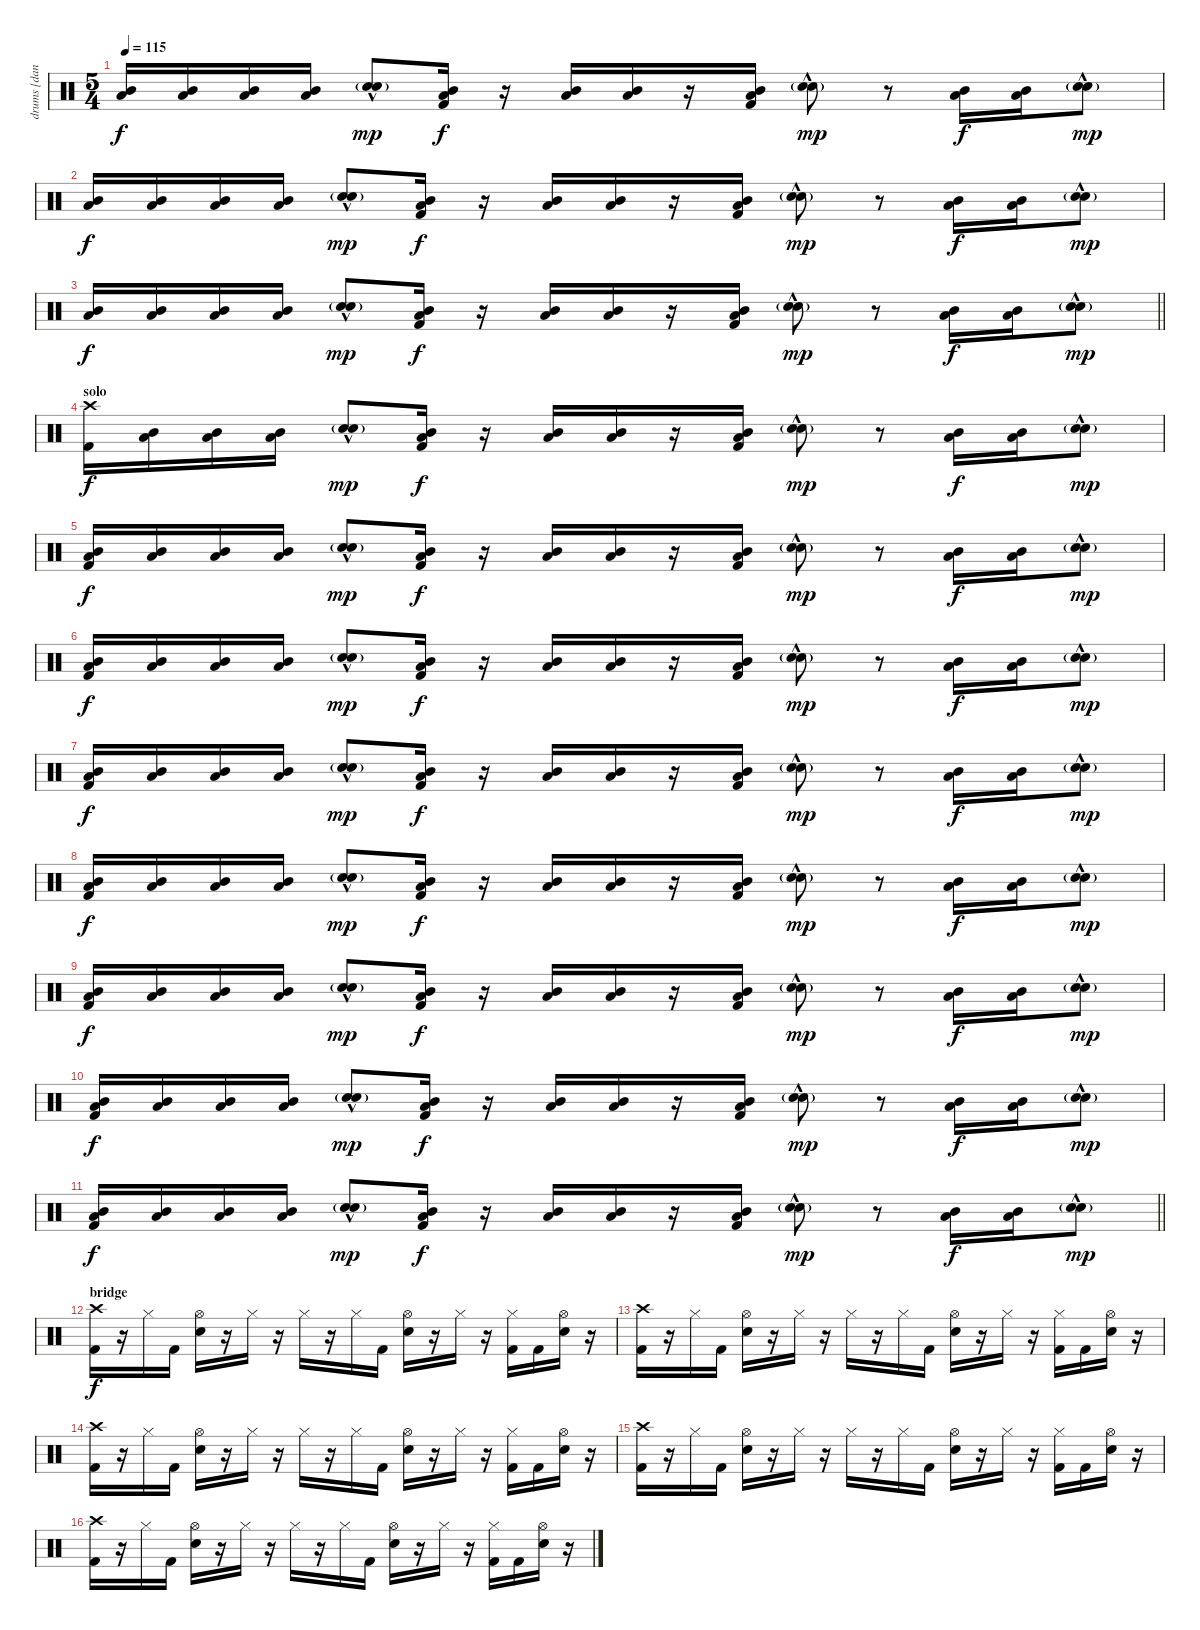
\track ("drums [danny carey]" "drums [dan") {instrument percussion}
\staff {score}
\articulation defaults
\ts (5 4)
\tempo 115
\clef neutral
\ks c
("Mid Tom (hit)" "Low Tom (hit)").16{dy f} ("Mid Tom (hit)" "Low Tom (hit)").16 ("Mid Tom (hit)" "Low Tom (hit)").16 ("Mid Tom (hit)" "Low Tom (hit)").16 ("Electric Snare (hit)"{hac} "Snare (hit) 2"{g}).8{dy mp} ("Mid Tom (hit)" "Low Tom (hit)" "Kick (hit) 2").16{dy f} r.16 ("Mid Tom (hit)" "Low Tom (hit)").16 ("Mid Tom (hit)" "Low Tom (hit)").16 r.16 ("Mid Tom (hit)" "Low Tom (hit)" "Kick (hit) 2").16 ("Electric Snare (hit)"{hac} "Snare (hit) 2"{g}).8{dy mp} r.8 ("Mid Tom (hit)" "Low Tom (hit)").16{dy f} ("Mid Tom (hit)" "Low Tom (hit)").16 ("Electric Snare (hit)"{hac} "Snare (hit) 2"{g}).8{dy mp} |
("Mid Tom (hit)" "Low Tom (hit)").16{dy f} ("Mid Tom (hit)" "Low Tom (hit)").16 ("Mid Tom (hit)" "Low Tom (hit)").16 ("Mid Tom (hit)" "Low Tom (hit)").16 ("Electric Snare (hit)"{hac} "Snare (hit) 2"{g}).8{dy mp} ("Mid Tom (hit)" "Low Tom (hit)" "Kick (hit) 2").16{dy f} r.16 ("Mid Tom (hit)" "Low Tom (hit)").16 ("Mid Tom (hit)" "Low Tom (hit)").16 r.16 ("Mid Tom (hit)" "Low Tom (hit)" "Kick (hit) 2").16 ("Electric Snare (hit)"{hac} "Snare (hit) 2"{g}).8{dy mp} r.8 ("Mid Tom (hit)" "Low Tom (hit)").16{dy f} ("Mid Tom (hit)" "Low Tom (hit)").16 ("Electric Snare (hit)"{hac} "Snare (hit) 2"{g}).8{dy mp} |
\barLineRight lightlight
("Mid Tom (hit)" "Low Tom (hit)").16{dy f} ("Mid Tom (hit)" "Low Tom (hit)").16 ("Mid Tom (hit)" "Low Tom (hit)").16 ("Mid Tom (hit)" "Low Tom (hit)").16 ("Electric Snare (hit)"{hac} "Snare (hit) 2"{g}).8{dy mp} ("Mid Tom (hit)" "Low Tom (hit)" "Kick (hit) 2").16{dy f} r.16 ("Mid Tom (hit)" "Low Tom (hit)").16 ("Mid Tom (hit)" "Low Tom (hit)").16 r.16 ("Mid Tom (hit)" "Low Tom (hit)" "Kick (hit) 2").16 ("Electric Snare (hit)"{hac} "Snare (hit) 2"{g}).8{dy mp} r.8 ("Mid Tom (hit)" "Low Tom (hit)").16{dy f} ("Mid Tom (hit)" "Low Tom (hit)").16 ("Electric Snare (hit)"{hac} "Snare (hit) 2"{g}).8{dy mp} |
\section ("" "solo")
("Crash high (hit)" "Kick (hit) 2").16{dy f} ("Mid Tom (hit)" "Low Tom (hit)").16 ("Mid Tom (hit)" "Low Tom (hit)").16 ("Mid Tom (hit)" "Low Tom (hit)").16 ("Electric Snare (hit)"{hac} "Snare (hit) 2"{g}).8{dy mp} ("Mid Tom (hit)" "Low Tom (hit)" "Kick (hit) 2").16{dy f} r.16 ("Mid Tom (hit)" "Low Tom (hit)").16 ("Mid Tom (hit)" "Low Tom (hit)").16 r.16 ("Mid Tom (hit)" "Low Tom (hit)" "Kick (hit) 2").16 ("Electric Snare (hit)"{hac} "Snare (hit) 2"{g}).8{dy mp} r.8 ("Mid Tom (hit)" "Low Tom (hit)").16{dy f} ("Mid Tom (hit)" "Low Tom (hit)").16 ("Electric Snare (hit)"{hac} "Snare (hit) 2"{g}).8{dy mp} |
("Mid Tom (hit)" "Low Tom (hit)" "Kick (hit) 2").16{dy f} ("Mid Tom (hit)" "Low Tom (hit)").16 ("Mid Tom (hit)" "Low Tom (hit)").16 ("Mid Tom (hit)" "Low Tom (hit)").16 ("Electric Snare (hit)"{hac} "Snare (hit) 2"{g}).8{dy mp} ("Mid Tom (hit)" "Low Tom (hit)" "Kick (hit) 2").16{dy f} r.16 ("Mid Tom (hit)" "Low Tom (hit)").16 ("Mid Tom (hit)" "Low Tom (hit)").16 r.16 ("Mid Tom (hit)" "Low Tom (hit)" "Kick (hit) 2").16 ("Electric Snare (hit)"{hac} "Snare (hit) 2"{g}).8{dy mp} r.8 ("Mid Tom (hit)" "Low Tom (hit)").16{dy f} ("Mid Tom (hit)" "Low Tom (hit)").16 ("Electric Snare (hit)"{hac} "Snare (hit) 2"{g}).8{dy mp} |
("Mid Tom (hit)" "Low Tom (hit)" "Kick (hit) 2").16{dy f} ("Mid Tom (hit)" "Low Tom (hit)").16 ("Mid Tom (hit)" "Low Tom (hit)").16 ("Mid Tom (hit)" "Low Tom (hit)").16 ("Electric Snare (hit)"{hac} "Snare (hit) 2"{g}).8{dy mp} ("Mid Tom (hit)" "Low Tom (hit)" "Kick (hit) 2").16{dy f} r.16 ("Mid Tom (hit)" "Low Tom (hit)").16 ("Mid Tom (hit)" "Low Tom (hit)").16 r.16 ("Mid Tom (hit)" "Low Tom (hit)" "Kick (hit) 2").16 ("Electric Snare (hit)"{hac} "Snare (hit) 2"{g}).8{dy mp} r.8 ("Mid Tom (hit)" "Low Tom (hit)").16{dy f} ("Mid Tom (hit)" "Low Tom (hit)").16 ("Electric Snare (hit)"{hac} "Snare (hit) 2"{g}).8{dy mp} |
("Mid Tom (hit)" "Low Tom (hit)" "Kick (hit) 2").16{dy f} ("Mid Tom (hit)" "Low Tom (hit)").16 ("Mid Tom (hit)" "Low Tom (hit)").16 ("Mid Tom (hit)" "Low Tom (hit)").16 ("Electric Snare (hit)"{hac} "Snare (hit) 2"{g}).8{dy mp} ("Mid Tom (hit)" "Low Tom (hit)" "Kick (hit) 2").16{dy f} r.16 ("Mid Tom (hit)" "Low Tom (hit)").16 ("Mid Tom (hit)" "Low Tom (hit)").16 r.16 ("Mid Tom (hit)" "Low Tom (hit)" "Kick (hit) 2").16 ("Electric Snare (hit)"{hac} "Snare (hit) 2"{g}).8{dy mp} r.8 ("Mid Tom (hit)" "Low Tom (hit)").16{dy f} ("Mid Tom (hit)" "Low Tom (hit)").16 ("Electric Snare (hit)"{hac} "Snare (hit) 2"{g}).8{dy mp} |
("Mid Tom (hit)" "Low Tom (hit)" "Kick (hit) 2").16{dy f} ("Mid Tom (hit)" "Low Tom (hit)").16 ("Mid Tom (hit)" "Low Tom (hit)").16 ("Mid Tom (hit)" "Low Tom (hit)").16 ("Electric Snare (hit)"{hac} "Snare (hit) 2"{g}).8{dy mp} ("Mid Tom (hit)" "Low Tom (hit)" "Kick (hit) 2").16{dy f} r.16 ("Mid Tom (hit)" "Low Tom (hit)").16 ("Mid Tom (hit)" "Low Tom (hit)").16 r.16 ("Mid Tom (hit)" "Low Tom (hit)" "Kick (hit) 2").16 ("Electric Snare (hit)"{hac} "Snare (hit) 2"{g}).8{dy mp} r.8 ("Mid Tom (hit)" "Low Tom (hit)").16{dy f} ("Mid Tom (hit)" "Low Tom (hit)").16 ("Electric Snare (hit)"{hac} "Snare (hit) 2"{g}).8{dy mp} |
("Mid Tom (hit)" "Low Tom (hit)" "Kick (hit) 2").16{dy f} ("Mid Tom (hit)" "Low Tom (hit)").16 ("Mid Tom (hit)" "Low Tom (hit)").16 ("Mid Tom (hit)" "Low Tom (hit)").16 ("Electric Snare (hit)"{hac} "Snare (hit) 2"{g}).8{dy mp} ("Mid Tom (hit)" "Low Tom (hit)" "Kick (hit) 2").16{dy f} r.16 ("Mid Tom (hit)" "Low Tom (hit)").16 ("Mid Tom (hit)" "Low Tom (hit)").16 r.16 ("Mid Tom (hit)" "Low Tom (hit)" "Kick (hit) 2").16 ("Electric Snare (hit)"{hac} "Snare (hit) 2"{g}).8{dy mp} r.8 ("Mid Tom (hit)" "Low Tom (hit)").16{dy f} ("Mid Tom (hit)" "Low Tom (hit)").16 ("Electric Snare (hit)"{hac} "Snare (hit) 2"{g}).8{dy mp} |
("Mid Tom (hit)" "Low Tom (hit)" "Kick (hit) 2").16{dy f} ("Mid Tom (hit)" "Low Tom (hit)").16 ("Mid Tom (hit)" "Low Tom (hit)").16 ("Mid Tom (hit)" "Low Tom (hit)").16 ("Electric Snare (hit)"{hac} "Snare (hit) 2"{g}).8{dy mp} ("Mid Tom (hit)" "Low Tom (hit)" "Kick (hit) 2").16{dy f} r.16 ("Mid Tom (hit)" "Low Tom (hit)").16 ("Mid Tom (hit)" "Low Tom (hit)").16 r.16 ("Mid Tom (hit)" "Low Tom (hit)" "Kick (hit) 2").16 ("Electric Snare (hit)"{hac} "Snare (hit) 2"{g}).8{dy mp} r.8 ("Mid Tom (hit)" "Low Tom (hit)").16{dy f} ("Mid Tom (hit)" "Low Tom (hit)").16 ("Electric Snare (hit)"{hac} "Snare (hit) 2"{g}).8{dy mp} |
\barLineRight lightlight
("Mid Tom (hit)" "Low Tom (hit)" "Kick (hit) 2").16{dy f} ("Mid Tom (hit)" "Low Tom (hit)").16 ("Mid Tom (hit)" "Low Tom (hit)").16 ("Mid Tom (hit)" "Low Tom (hit)").16 ("Electric Snare (hit)"{hac} "Snare (hit) 2"{g}).8{dy mp} ("Mid Tom (hit)" "Low Tom (hit)" "Kick (hit) 2").16{dy f} r.16 ("Mid Tom (hit)" "Low Tom (hit)").16 ("Mid Tom (hit)" "Low Tom (hit)").16 r.16 ("Mid Tom (hit)" "Low Tom (hit)" "Kick (hit) 2").16 ("Electric Snare (hit)"{hac} "Snare (hit) 2"{g}).8{dy mp} r.8 ("Mid Tom (hit)" "Low Tom (hit)").16{dy f} ("Mid Tom (hit)" "Low Tom (hit)").16 ("Electric Snare (hit)"{hac} "Snare (hit) 2"{g}).8{dy mp} |
\section ("" "bridge")
("Crash high (hit)" "Kick (hit) 2").16{dy f} r.16 "Hi-Hat (closed)".16 "Kick (hit) 2".16 ("Hi-Hat (open)" "Electric Snare (hit)").16 r.16 "Hi-Hat (closed)".16 r.16 "Hi-Hat (closed)".16 r.16 "Hi-Hat (closed)".16 "Kick (hit) 2".16 ("Hi-Hat (open)" "Electric Snare (hit)").16 r.16 "Hi-Hat (closed)".16 r.16 ("Hi-Hat (closed)" "Kick (hit) 2").16 "Kick (hit) 2".16 ("Hi-Hat (open)" "Electric Snare (hit)").16 r.16 |
("Crash high (hit)" "Kick (hit) 2").16 r.16 "Hi-Hat (closed)".16 "Kick (hit) 2".16 ("Hi-Hat (open)" "Electric Snare (hit)").16 r.16 "Hi-Hat (closed)".16 r.16 "Hi-Hat (closed)".16 r.16 "Hi-Hat (closed)".16 "Kick (hit) 2".16 ("Hi-Hat (open)" "Electric Snare (hit)").16 r.16 "Hi-Hat (closed)".16 r.16 ("Hi-Hat (closed)" "Kick (hit) 2").16 "Kick (hit) 2".16 ("Hi-Hat (open)" "Electric Snare (hit)").16 r.16 |
("Crash high (hit)" "Kick (hit) 2").16 r.16 "Hi-Hat (closed)".16 "Kick (hit) 2".16 ("Hi-Hat (open)" "Electric Snare (hit)").16 r.16 "Hi-Hat (closed)".16 r.16 "Hi-Hat (closed)".16 r.16 "Hi-Hat (closed)".16 "Kick (hit) 2".16 ("Hi-Hat (open)" "Electric Snare (hit)").16 r.16 "Hi-Hat (closed)".16 r.16 ("Hi-Hat (closed)" "Kick (hit) 2").16 "Kick (hit) 2".16 ("Hi-Hat (open)" "Electric Snare (hit)").16 r.16 |
("Crash high (hit)" "Kick (hit) 2").16 r.16 "Hi-Hat (closed)".16 "Kick (hit) 2".16 ("Hi-Hat (open)" "Electric Snare (hit)").16 r.16 "Hi-Hat (closed)".16 r.16 "Hi-Hat (closed)".16 r.16 "Hi-Hat (closed)".16 "Kick (hit) 2".16 ("Hi-Hat (open)" "Electric Snare (hit)").16 r.16 "Hi-Hat (closed)".16 r.16 ("Hi-Hat (closed)" "Kick (hit) 2").16 "Kick (hit) 2".16 ("Hi-Hat (open)" "Electric Snare (hit)").16 r.16 |
("Crash high (hit)" "Kick (hit) 2").16 r.16 "Hi-Hat (closed)".16 "Kick (hit) 2".16 ("Hi-Hat (open)" "Electric Snare (hit)").16 r.16 "Hi-Hat (closed)".16 r.16 "Hi-Hat (closed)".16 r.16 "Hi-Hat (closed)".16 "Kick (hit) 2".16 ("Hi-Hat (open)" "Electric Snare (hit)").16 r.16 "Hi-Hat (closed)".16 r.16 ("Hi-Hat (closed)" "Kick (hit) 2").16 "Kick (hit) 2".16 ("Hi-Hat (open)" "Electric Snare (hit)").16 r.16
